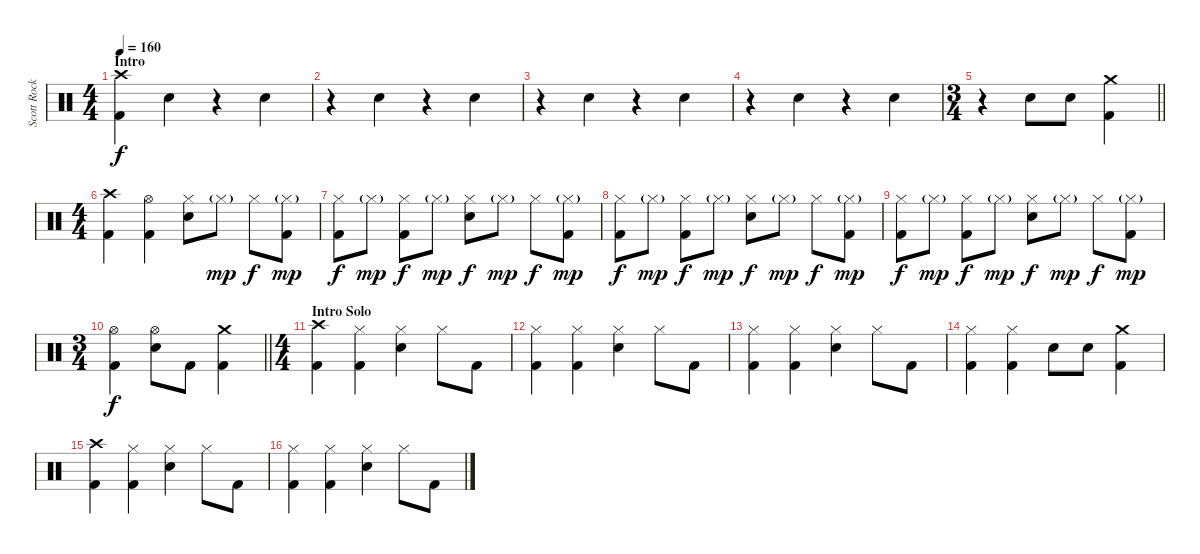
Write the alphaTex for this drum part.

\track ("Scott Rockenfield" "Scott Rock") {instrument percussion}
\staff {score}
\articulation defaults
\ts (4 4)
\section ("" "Intro")
\tempo 160
\clef neutral
\ks c
("Crash high (hit)" "Kick (hit) 2").4{dy f} "Electric Snare (hit)".4 r.4 "Electric Snare (hit)".4 |
r.4 "Electric Snare (hit)".4 r.4 "Electric Snare (hit)".4 |
r.4 "Electric Snare (hit)".4 r.4 "Electric Snare (hit)".4 |
r.4 "Electric Snare (hit)".4 r.4 "Electric Snare (hit)".4 |
\ts (3 4)
\barLineRight lightlight
r.4 "Electric Snare (hit)".8 "Electric Snare (hit)".8 ("Crash medium (hit)" "Kick (hit) 2").4 |
\ts (4 4)
("Crash high (hit)" "Kick (hit) 2").4 ("Hi-Hat (open)" "Kick (hit) 2").4 ("Hi-Hat (closed)" "Electric Snare (hit)").8 "Hi-Hat (closed)"{g}.8{dy mp} "Hi-Hat (closed)".8{dy f} ("Hi-Hat (closed)"{g} "Kick (hit) 2").8{dy mp} |
("Hi-Hat (closed)" "Kick (hit) 2").8{dy f} "Hi-Hat (closed)"{g}.8{dy mp} ("Hi-Hat (closed)" "Kick (hit) 2").8{dy f} "Hi-Hat (closed)"{g}.8{dy mp} ("Hi-Hat (closed)" "Electric Snare (hit)").8{dy f} "Hi-Hat (closed)"{g}.8{dy mp} "Hi-Hat (closed)".8{dy f} ("Hi-Hat (closed)"{g} "Kick (hit) 2").8{dy mp} |
("Hi-Hat (closed)" "Kick (hit) 2").8{dy f} "Hi-Hat (closed)"{g}.8{dy mp} ("Hi-Hat (closed)" "Kick (hit) 2").8{dy f} "Hi-Hat (closed)"{g}.8{dy mp} ("Hi-Hat (closed)" "Electric Snare (hit)").8{dy f} "Hi-Hat (closed)"{g}.8{dy mp} "Hi-Hat (closed)".8{dy f} ("Hi-Hat (closed)"{g} "Kick (hit) 2").8{dy mp} |
("Hi-Hat (closed)" "Kick (hit) 2").8{dy f} "Hi-Hat (closed)"{g}.8{dy mp} ("Hi-Hat (closed)" "Kick (hit) 2").8{dy f} "Hi-Hat (closed)"{g}.8{dy mp} ("Hi-Hat (closed)" "Electric Snare (hit)").8{dy f} "Hi-Hat (closed)"{g}.8{dy mp} "Hi-Hat (closed)".8{dy f} ("Hi-Hat (closed)"{g} "Kick (hit) 2").8{dy mp} |
\ts (3 4)
\barLineRight lightlight
("Hi-Hat (open)" "Kick (hit) 2").4{dy f} ("Hi-Hat (open)" "Electric Snare (hit)").8 "Kick (hit) 2".8 ("Crash medium (hit)" "Kick (hit) 2").4 |
\ts (4 4)
\section ("" "Intro Solo")
("Crash high (hit)" "Kick (hit) 2").4 ("Hi-Hat (closed)" "Kick (hit) 2").4 ("Hi-Hat (closed)" "Electric Snare (hit)").4 "Hi-Hat (closed)".8 "Kick (hit) 2".8 |
("Hi-Hat (closed)" "Kick (hit) 2").4 ("Hi-Hat (closed)" "Kick (hit) 2").4 ("Hi-Hat (closed)" "Electric Snare (hit)").4 "Hi-Hat (closed)".8 "Kick (hit) 2".8 |
("Hi-Hat (closed)" "Kick (hit) 2").4 ("Hi-Hat (closed)" "Kick (hit) 2").4 ("Hi-Hat (closed)" "Electric Snare (hit)").4 "Hi-Hat (closed)".8 "Kick (hit) 2".8 |
("Hi-Hat (closed)" "Kick (hit) 2").4 ("Hi-Hat (closed)" "Kick (hit) 2").4 "Electric Snare (hit)".8 "Electric Snare (hit)".8 ("Crash medium (hit)" "Kick (hit) 2").4 |
("Crash high (hit)" "Kick (hit) 2").4 ("Hi-Hat (closed)" "Kick (hit) 2").4 ("Hi-Hat (closed)" "Electric Snare (hit)").4 "Hi-Hat (closed)".8 "Kick (hit) 2".8 |
("Hi-Hat (closed)" "Kick (hit) 2").4 ("Hi-Hat (closed)" "Kick (hit) 2").4 ("Hi-Hat (closed)" "Electric Snare (hit)").4 "Hi-Hat (closed)".8 "Kick (hit) 2".8
